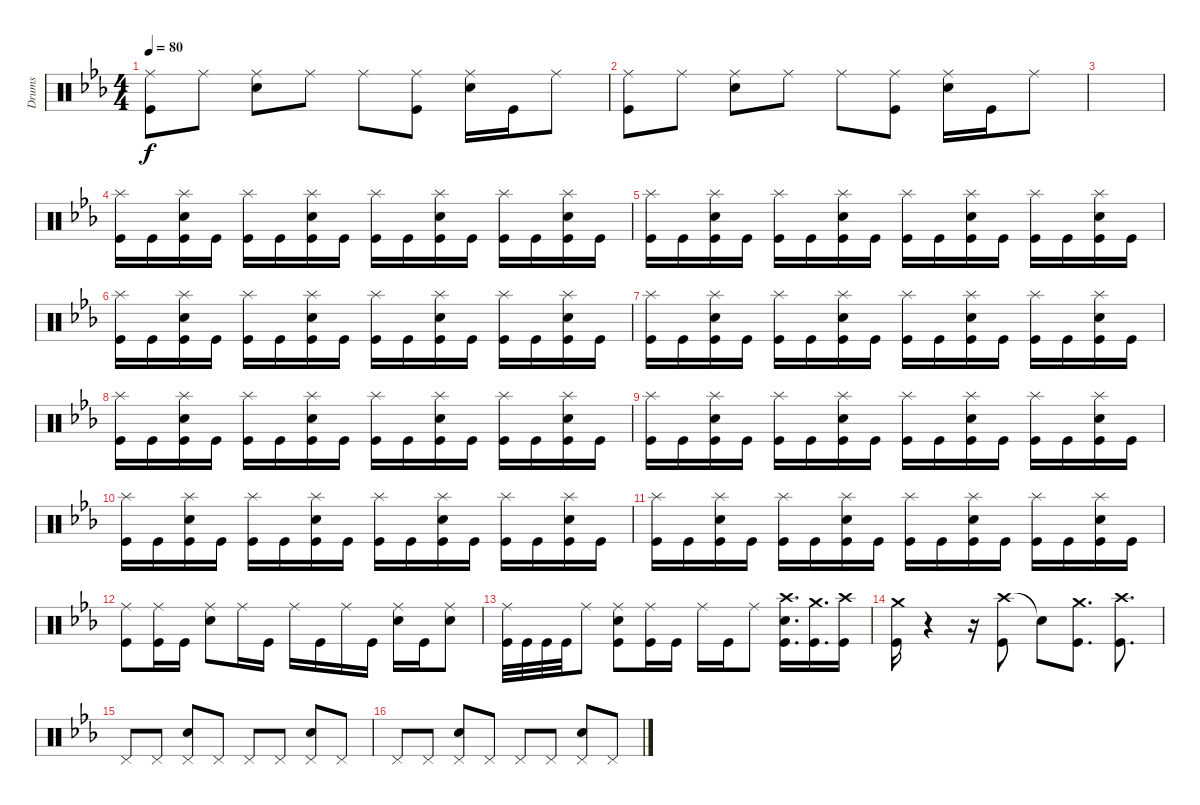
\track ("Drums" "Drums") {instrument percussion}
\staff {score}
\articulation defaults
\ts (4 4)
\tempo 80
\clef neutral
\ks eb
("Ride (middle)" "Kick (hit)").8{dy f} "Ride (middle)".8 ("Ride (middle)" "Electric Snare (hit)").8 "Ride (middle)".8 "Ride (middle)".8 ("Ride (middle)" "Kick (hit)").8 ("Ride (middle)" "Electric Snare (hit)").16 "Kick (hit)".16 "Ride (middle)".8 |
("Ride (middle)" "Kick (hit)").8 "Ride (middle)".8 ("Ride (middle)" "Electric Snare (hit)").8 "Ride (middle)".8 "Ride (middle)".8 ("Ride (middle)" "Kick (hit)").8 ("Ride (middle)" "Electric Snare (hit)").16 "Kick (hit)".16 "Ride (middle)".8 |
|
("Splash (hit)" "Kick (hit)").16 "Kick (hit)".16 ("Splash (hit)" "Electric Snare (hit)" "Kick (hit)").16 "Kick (hit)".16 ("Splash (hit)" "Kick (hit)").16 "Kick (hit)".16 ("Splash (hit)" "Electric Snare (hit)" "Kick (hit)").16 "Kick (hit)".16 ("Splash (hit)" "Kick (hit)").16 "Kick (hit)".16 ("Splash (hit)" "Electric Snare (hit)" "Kick (hit)").16 "Kick (hit)".16 ("Splash (hit)" "Kick (hit)").16 "Kick (hit)".16 ("Splash (hit)" "Electric Snare (hit)" "Kick (hit)").16 "Kick (hit)".16 |
("Splash (hit)" "Kick (hit)").16 "Kick (hit)".16 ("Splash (hit)" "Electric Snare (hit)" "Kick (hit)").16 "Kick (hit)".16 ("Splash (hit)" "Kick (hit)").16 "Kick (hit)".16 ("Splash (hit)" "Electric Snare (hit)" "Kick (hit)").16 "Kick (hit)".16 ("Splash (hit)" "Kick (hit)").16 "Kick (hit)".16 ("Splash (hit)" "Electric Snare (hit)" "Kick (hit)").16 "Kick (hit)".16 ("Splash (hit)" "Kick (hit)").16 "Kick (hit)".16 ("Splash (hit)" "Electric Snare (hit)" "Kick (hit)").16 "Kick (hit)".16 |
("Splash (hit)" "Kick (hit)").16 "Kick (hit)".16 ("Splash (hit)" "Electric Snare (hit)" "Kick (hit)").16 "Kick (hit)".16 ("Splash (hit)" "Kick (hit)").16 "Kick (hit)".16 ("Splash (hit)" "Electric Snare (hit)" "Kick (hit)").16 "Kick (hit)".16 ("Splash (hit)" "Kick (hit)").16 "Kick (hit)".16 ("Splash (hit)" "Electric Snare (hit)" "Kick (hit)").16 "Kick (hit)".16 ("Splash (hit)" "Kick (hit)").16 "Kick (hit)".16 ("Splash (hit)" "Electric Snare (hit)" "Kick (hit)").16 "Kick (hit)".16 |
("Splash (hit)" "Kick (hit)").16 "Kick (hit)".16 ("Splash (hit)" "Electric Snare (hit)" "Kick (hit)").16 "Kick (hit)".16 ("Splash (hit)" "Kick (hit)").16 "Kick (hit)".16 ("Splash (hit)" "Electric Snare (hit)" "Kick (hit)").16 "Kick (hit)".16 ("Splash (hit)" "Kick (hit)").16 "Kick (hit)".16 ("Splash (hit)" "Electric Snare (hit)" "Kick (hit)").16 "Kick (hit)".16 ("Splash (hit)" "Kick (hit)").16 "Kick (hit)".16 ("Splash (hit)" "Electric Snare (hit)" "Kick (hit)").16 "Kick (hit)".16 |
("Splash (hit)" "Kick (hit)").16 "Kick (hit)".16 ("Splash (hit)" "Electric Snare (hit)" "Kick (hit)").16 "Kick (hit)".16 ("Splash (hit)" "Kick (hit)").16 "Kick (hit)".16 ("Splash (hit)" "Electric Snare (hit)" "Kick (hit)").16 "Kick (hit)".16 ("Splash (hit)" "Kick (hit)").16 "Kick (hit)".16 ("Splash (hit)" "Electric Snare (hit)" "Kick (hit)").16 "Kick (hit)".16 ("Splash (hit)" "Kick (hit)").16 "Kick (hit)".16 ("Splash (hit)" "Electric Snare (hit)" "Kick (hit)").16 "Kick (hit)".16 |
("Splash (hit)" "Kick (hit)").16 "Kick (hit)".16 ("Splash (hit)" "Electric Snare (hit)" "Kick (hit)").16 "Kick (hit)".16 ("Splash (hit)" "Kick (hit)").16 "Kick (hit)".16 ("Splash (hit)" "Electric Snare (hit)" "Kick (hit)").16 "Kick (hit)".16 ("Splash (hit)" "Kick (hit)").16 "Kick (hit)".16 ("Splash (hit)" "Electric Snare (hit)" "Kick (hit)").16 "Kick (hit)".16 ("Splash (hit)" "Kick (hit)").16 "Kick (hit)".16 ("Splash (hit)" "Electric Snare (hit)" "Kick (hit)").16 "Kick (hit)".16 |
("Splash (hit)" "Kick (hit)").16 "Kick (hit)".16 ("Splash (hit)" "Electric Snare (hit)" "Kick (hit)").16 "Kick (hit)".16 ("Splash (hit)" "Kick (hit)").16 "Kick (hit)".16 ("Splash (hit)" "Electric Snare (hit)" "Kick (hit)").16 "Kick (hit)".16 ("Splash (hit)" "Kick (hit)").16 "Kick (hit)".16 ("Splash (hit)" "Electric Snare (hit)" "Kick (hit)").16 "Kick (hit)".16 ("Splash (hit)" "Kick (hit)").16 "Kick (hit)".16 ("Splash (hit)" "Electric Snare (hit)" "Kick (hit)").16 "Kick (hit)".16 |
("Splash (hit)" "Kick (hit)").16 "Kick (hit)".16 ("Splash (hit)" "Electric Snare (hit)" "Kick (hit)").16 "Kick (hit)".16 ("Splash (hit)" "Kick (hit)").16 "Kick (hit)".16 ("Splash (hit)" "Electric Snare (hit)" "Kick (hit)").16 "Kick (hit)".16 ("Splash (hit)" "Kick (hit)").16 "Kick (hit)".16 ("Splash (hit)" "Electric Snare (hit)" "Kick (hit)").16 "Kick (hit)".16 ("Splash (hit)" "Kick (hit)").16 "Kick (hit)".16 ("Splash (hit)" "Electric Snare (hit)" "Kick (hit)").16 "Kick (hit)".16 |
("Ride (middle)" "Kick (hit)").8 ("Ride (middle)" "Kick (hit)").16 "Kick (hit)".16 ("Ride (middle)" "Electric Snare (hit)").8 "Ride (middle)".16 "Kick (hit)".16 "Ride (middle)".16 "Kick (hit)".16 "Ride (middle)".16 "Kick (hit)".16 ("Ride (middle)" "Electric Snare (hit)").16 "Kick (hit)".16 ("Ride (middle)" "Electric Snare (hit)").8 |
("Ride (middle)" "Kick (hit)").32 "Kick (hit)".32 "Kick (hit)".32 "Kick (hit)".32 "Ride (middle)".8 ("Ride (middle)" "Electric Snare (hit)" "Kick (hit)").8 ("Ride (middle)" "Kick (hit)").16 "Kick (hit)".16 "Ride (middle)".16 "Kick (hit)".16 "Ride (middle)".8 ("Crash high (hit)" "Electric Snare (hit)" "Kick (hit)").16{d} ("Crash medium (hit)" "Kick (hit)").16{d} ("Crash high (hit)" "Kick (hit)").16 |
("Crash medium (hit)" "Kick (hit)").16 r.4 r.16 ("Crash high (hit)" "Kick (hit)").8 "Snare (hit)"{t}.8 ("Crash medium (hit)" "Kick (hit)").8{d} ("Crash high (hit)" "Kick (hit)").8{d} |
"Pedal Hi-Hat (hit)".8 "Pedal Hi-Hat (hit)".8 ("Pedal Hi-Hat (hit)" "Electric Snare (hit)").8 "Pedal Hi-Hat (hit)".8 "Pedal Hi-Hat (hit)".8 "Pedal Hi-Hat (hit)".8 ("Pedal Hi-Hat (hit)" "Electric Snare (hit)").8 "Pedal Hi-Hat (hit)".8 |
"Pedal Hi-Hat (hit)".8 "Pedal Hi-Hat (hit)".8 ("Pedal Hi-Hat (hit)" "Electric Snare (hit)").8 "Pedal Hi-Hat (hit)".8 "Pedal Hi-Hat (hit)".8 "Pedal Hi-Hat (hit)".8 ("Pedal Hi-Hat (hit)" "Electric Snare (hit)").8 "Pedal Hi-Hat (hit)".8
